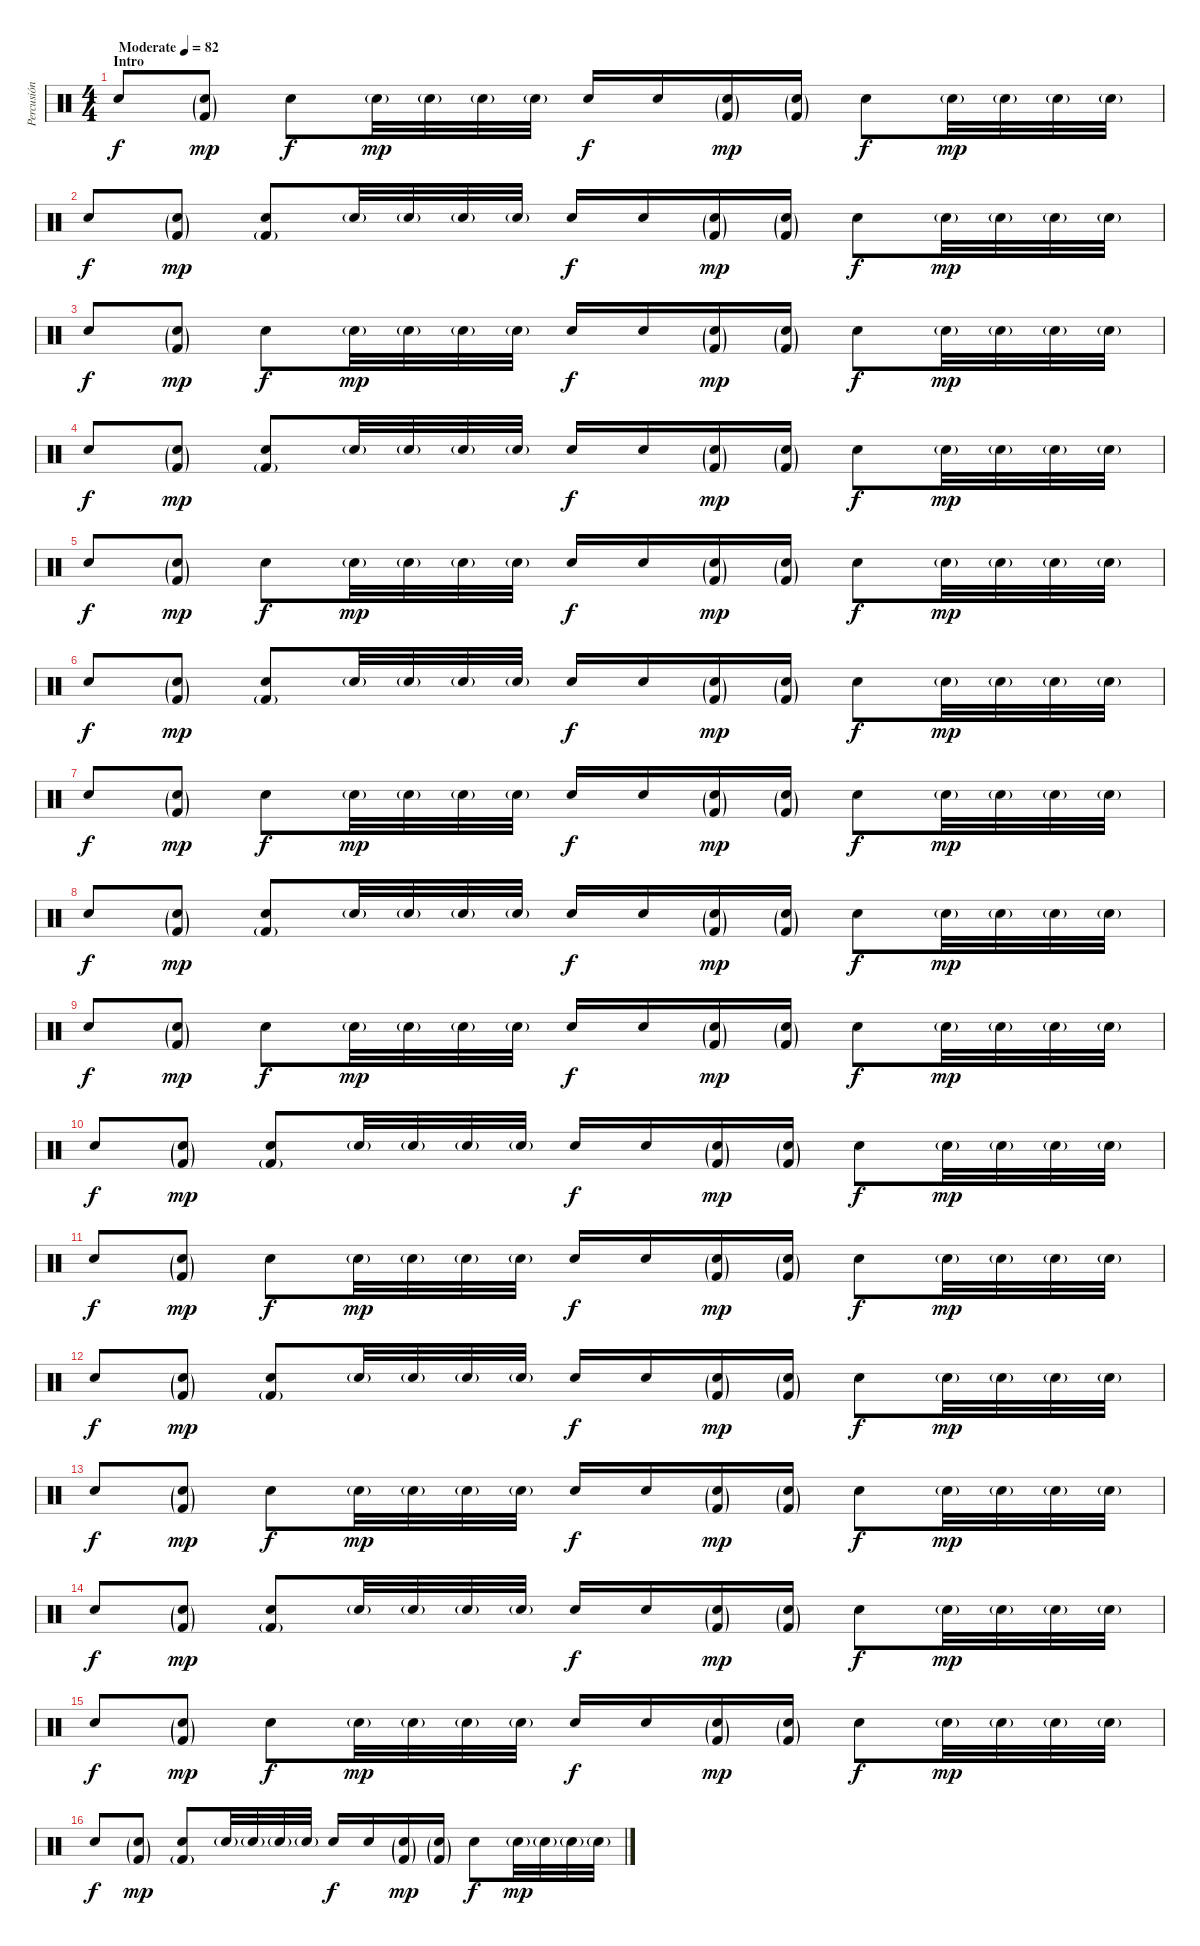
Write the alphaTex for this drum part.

\track ("Percusión" "Percusión") {instrument percussion}
\staff
\articulation defaults
\ts (4 4)
\section ("" "Intro")
\tempo (82 "Moderate")
\clef neutral
\ks c "Snare (hit) 2".8{dy f}
("Snare (hit) 2"{g} "Kick (hit) 2"{g}).8{dy mp} "Snare (hit) 2".8{dy f} "Snare (hit) 2"{g}.32{dy mp} "Snare (hit) 2"{g}.32 "Snare (hit) 2"{g}.32 "Snare (hit) 2"{g}.32 "Snare (hit) 2".16{dy f} "Snare (hit) 2".16 ("Snare (hit) 2"{g} "Kick (hit) 2"{g}).16{dy mp} ("Snare (hit) 2"{g} "Kick (hit) 2"{g}).16 "Snare (hit) 2".8{dy f} "Snare (hit) 2"{g}.32{dy mp} "Snare (hit) 2"{g}.32 "Snare (hit) 2"{g}.32 "Snare (hit) 2"{g}.32 |
"Snare (hit) 2".8{dy f} ("Snare (hit) 2"{g} "Kick (hit) 2"{g}).8{dy mp} ("Snare (hit) 2" "Kick (hit) 2"{g}).8 "Snare (hit) 2"{g}.32 "Snare (hit) 2"{g}.32 "Snare (hit) 2"{g}.32 "Snare (hit) 2"{g}.32 "Snare (hit) 2".16{dy f} "Snare (hit) 2".16 ("Snare (hit) 2"{g} "Kick (hit) 2"{g}).16{dy mp} ("Snare (hit) 2"{g} "Kick (hit) 2"{g}).16 "Snare (hit) 2".8{dy f} "Snare (hit) 2"{g}.32{dy mp} "Snare (hit) 2"{g}.32 "Snare (hit) 2"{g}.32 "Snare (hit) 2"{g}.32 |
"Snare (hit) 2".8{dy f} ("Snare (hit) 2"{g} "Kick (hit) 2"{g}).8{dy mp} "Snare (hit) 2".8{dy f} "Snare (hit) 2"{g}.32{dy mp} "Snare (hit) 2"{g}.32 "Snare (hit) 2"{g}.32 "Snare (hit) 2"{g}.32 "Snare (hit) 2".16{dy f} "Snare (hit) 2".16 ("Snare (hit) 2"{g} "Kick (hit) 2"{g}).16{dy mp} ("Snare (hit) 2"{g} "Kick (hit) 2"{g}).16 "Snare (hit) 2".8{dy f} "Snare (hit) 2"{g}.32{dy mp} "Snare (hit) 2"{g}.32 "Snare (hit) 2"{g}.32 "Snare (hit) 2"{g}.32 |
"Snare (hit) 2".8{dy f} ("Snare (hit) 2"{g} "Kick (hit) 2"{g}).8{dy mp} ("Snare (hit) 2" "Kick (hit) 2"{g}).8 "Snare (hit) 2"{g}.32 "Snare (hit) 2"{g}.32 "Snare (hit) 2"{g}.32 "Snare (hit) 2"{g}.32 "Snare (hit) 2".16{dy f} "Snare (hit) 2".16 ("Snare (hit) 2"{g} "Kick (hit) 2"{g}).16{dy mp} ("Snare (hit) 2"{g} "Kick (hit) 2"{g}).16 "Snare (hit) 2".8{dy f} "Snare (hit) 2"{g}.32{dy mp} "Snare (hit) 2"{g}.32 "Snare (hit) 2"{g}.32 "Snare (hit) 2"{g}.32 |
"Snare (hit) 2".8{dy f} ("Snare (hit) 2"{g} "Kick (hit) 2"{g}).8{dy mp} "Snare (hit) 2".8{dy f} "Snare (hit) 2"{g}.32{dy mp} "Snare (hit) 2"{g}.32 "Snare (hit) 2"{g}.32 "Snare (hit) 2"{g}.32 "Snare (hit) 2".16{dy f} "Snare (hit) 2".16 ("Snare (hit) 2"{g} "Kick (hit) 2"{g}).16{dy mp} ("Snare (hit) 2"{g} "Kick (hit) 2"{g}).16 "Snare (hit) 2".8{dy f} "Snare (hit) 2"{g}.32{dy mp} "Snare (hit) 2"{g}.32 "Snare (hit) 2"{g}.32 "Snare (hit) 2"{g}.32 |
"Snare (hit) 2".8{dy f} ("Snare (hit) 2"{g} "Kick (hit) 2"{g}).8{dy mp} ("Snare (hit) 2" "Kick (hit) 2"{g}).8 "Snare (hit) 2"{g}.32 "Snare (hit) 2"{g}.32 "Snare (hit) 2"{g}.32 "Snare (hit) 2"{g}.32 "Snare (hit) 2".16{dy f} "Snare (hit) 2".16 ("Snare (hit) 2"{g} "Kick (hit) 2"{g}).16{dy mp} ("Snare (hit) 2"{g} "Kick (hit) 2"{g}).16 "Snare (hit) 2".8{dy f} "Snare (hit) 2"{g}.32{dy mp} "Snare (hit) 2"{g}.32 "Snare (hit) 2"{g}.32 "Snare (hit) 2"{g}.32 |
"Snare (hit) 2".8{dy f} ("Snare (hit) 2"{g} "Kick (hit) 2"{g}).8{dy mp} "Snare (hit) 2".8{dy f} "Snare (hit) 2"{g}.32{dy mp} "Snare (hit) 2"{g}.32 "Snare (hit) 2"{g}.32 "Snare (hit) 2"{g}.32 "Snare (hit) 2".16{dy f} "Snare (hit) 2".16 ("Snare (hit) 2"{g} "Kick (hit) 2"{g}).16{dy mp} ("Snare (hit) 2"{g} "Kick (hit) 2"{g}).16 "Snare (hit) 2".8{dy f} "Snare (hit) 2"{g}.32{dy mp} "Snare (hit) 2"{g}.32 "Snare (hit) 2"{g}.32 "Snare (hit) 2"{g}.32 |
"Snare (hit) 2".8{dy f} ("Snare (hit) 2"{g} "Kick (hit) 2"{g}).8{dy mp} ("Snare (hit) 2" "Kick (hit) 2"{g}).8 "Snare (hit) 2"{g}.32 "Snare (hit) 2"{g}.32 "Snare (hit) 2"{g}.32 "Snare (hit) 2"{g}.32 "Snare (hit) 2".16{dy f} "Snare (hit) 2".16 ("Snare (hit) 2"{g} "Kick (hit) 2"{g}).16{dy mp} ("Snare (hit) 2"{g} "Kick (hit) 2"{g}).16 "Snare (hit) 2".8{dy f} "Snare (hit) 2"{g}.32{dy mp} "Snare (hit) 2"{g}.32 "Snare (hit) 2"{g}.32 "Snare (hit) 2"{g}.32 |
"Snare (hit) 2".8{dy f} ("Snare (hit) 2"{g} "Kick (hit) 2"{g}).8{dy mp} "Snare (hit) 2".8{dy f} "Snare (hit) 2"{g}.32{dy mp} "Snare (hit) 2"{g}.32 "Snare (hit) 2"{g}.32 "Snare (hit) 2"{g}.32 "Snare (hit) 2".16{dy f} "Snare (hit) 2".16 ("Snare (hit) 2"{g} "Kick (hit) 2"{g}).16{dy mp} ("Snare (hit) 2"{g} "Kick (hit) 2"{g}).16 "Snare (hit) 2".8{dy f} "Snare (hit) 2"{g}.32{dy mp} "Snare (hit) 2"{g}.32 "Snare (hit) 2"{g}.32 "Snare (hit) 2"{g}.32 |
"Snare (hit) 2".8{dy f} ("Snare (hit) 2"{g} "Kick (hit) 2"{g}).8{dy mp} ("Snare (hit) 2" "Kick (hit) 2"{g}).8 "Snare (hit) 2"{g}.32 "Snare (hit) 2"{g}.32 "Snare (hit) 2"{g}.32 "Snare (hit) 2"{g}.32 "Snare (hit) 2".16{dy f} "Snare (hit) 2".16 ("Snare (hit) 2"{g} "Kick (hit) 2"{g}).16{dy mp} ("Snare (hit) 2"{g} "Kick (hit) 2"{g}).16 "Snare (hit) 2".8{dy f} "Snare (hit) 2"{g}.32{dy mp} "Snare (hit) 2"{g}.32 "Snare (hit) 2"{g}.32 "Snare (hit) 2"{g}.32 |
"Snare (hit) 2".8{dy f} ("Snare (hit) 2"{g} "Kick (hit) 2"{g}).8{dy mp} "Snare (hit) 2".8{dy f} "Snare (hit) 2"{g}.32{dy mp} "Snare (hit) 2"{g}.32 "Snare (hit) 2"{g}.32 "Snare (hit) 2"{g}.32 "Snare (hit) 2".16{dy f} "Snare (hit) 2".16 ("Snare (hit) 2"{g} "Kick (hit) 2"{g}).16{dy mp} ("Snare (hit) 2"{g} "Kick (hit) 2"{g}).16 "Snare (hit) 2".8{dy f} "Snare (hit) 2"{g}.32{dy mp} "Snare (hit) 2"{g}.32 "Snare (hit) 2"{g}.32 "Snare (hit) 2"{g}.32 |
"Snare (hit) 2".8{dy f} ("Snare (hit) 2"{g} "Kick (hit) 2"{g}).8{dy mp} ("Snare (hit) 2" "Kick (hit) 2"{g}).8 "Snare (hit) 2"{g}.32 "Snare (hit) 2"{g}.32 "Snare (hit) 2"{g}.32 "Snare (hit) 2"{g}.32 "Snare (hit) 2".16{dy f} "Snare (hit) 2".16 ("Snare (hit) 2"{g} "Kick (hit) 2"{g}).16{dy mp} ("Snare (hit) 2"{g} "Kick (hit) 2"{g}).16 "Snare (hit) 2".8{dy f} "Snare (hit) 2"{g}.32{dy mp} "Snare (hit) 2"{g}.32 "Snare (hit) 2"{g}.32 "Snare (hit) 2"{g}.32 |
"Snare (hit) 2".8{dy f} ("Snare (hit) 2"{g} "Kick (hit) 2"{g}).8{dy mp} "Snare (hit) 2".8{dy f} "Snare (hit) 2"{g}.32{dy mp} "Snare (hit) 2"{g}.32 "Snare (hit) 2"{g}.32 "Snare (hit) 2"{g}.32 "Snare (hit) 2".16{dy f} "Snare (hit) 2".16 ("Snare (hit) 2"{g} "Kick (hit) 2"{g}).16{dy mp} ("Snare (hit) 2"{g} "Kick (hit) 2"{g}).16 "Snare (hit) 2".8{dy f} "Snare (hit) 2"{g}.32{dy mp} "Snare (hit) 2"{g}.32 "Snare (hit) 2"{g}.32 "Snare (hit) 2"{g}.32 |
"Snare (hit) 2".8{dy f} ("Snare (hit) 2"{g} "Kick (hit) 2"{g}).8{dy mp} ("Snare (hit) 2" "Kick (hit) 2"{g}).8 "Snare (hit) 2"{g}.32 "Snare (hit) 2"{g}.32 "Snare (hit) 2"{g}.32 "Snare (hit) 2"{g}.32 "Snare (hit) 2".16{dy f} "Snare (hit) 2".16 ("Snare (hit) 2"{g} "Kick (hit) 2"{g}).16{dy mp} ("Snare (hit) 2"{g} "Kick (hit) 2"{g}).16 "Snare (hit) 2".8{dy f} "Snare (hit) 2"{g}.32{dy mp} "Snare (hit) 2"{g}.32 "Snare (hit) 2"{g}.32 "Snare (hit) 2"{g}.32 |
"Snare (hit) 2".8{dy f} ("Snare (hit) 2"{g} "Kick (hit) 2"{g}).8{dy mp} "Snare (hit) 2".8{dy f} "Snare (hit) 2"{g}.32{dy mp} "Snare (hit) 2"{g}.32 "Snare (hit) 2"{g}.32 "Snare (hit) 2"{g}.32 "Snare (hit) 2".16{dy f} "Snare (hit) 2".16 ("Snare (hit) 2"{g} "Kick (hit) 2"{g}).16{dy mp} ("Snare (hit) 2"{g} "Kick (hit) 2"{g}).16 "Snare (hit) 2".8{dy f} "Snare (hit) 2"{g}.32{dy mp} "Snare (hit) 2"{g}.32 "Snare (hit) 2"{g}.32 "Snare (hit) 2"{g}.32 |
"Snare (hit) 2".8{dy f} ("Snare (hit) 2"{g} "Kick (hit) 2"{g}).8{dy mp} ("Snare (hit) 2" "Kick (hit) 2"{g}).8 "Snare (hit) 2"{g}.32 "Snare (hit) 2"{g}.32 "Snare (hit) 2"{g}.32 "Snare (hit) 2"{g}.32 "Snare (hit) 2".16{dy f} "Snare (hit) 2".16 ("Snare (hit) 2"{g} "Kick (hit) 2"{g}).16{dy mp} ("Snare (hit) 2"{g} "Kick (hit) 2"{g}).16 "Snare (hit) 2".8{dy f} "Snare (hit) 2"{g}.32{dy mp} "Snare (hit) 2"{g}.32 "Snare (hit) 2"{g}.32 "Snare (hit) 2"{g}.32
